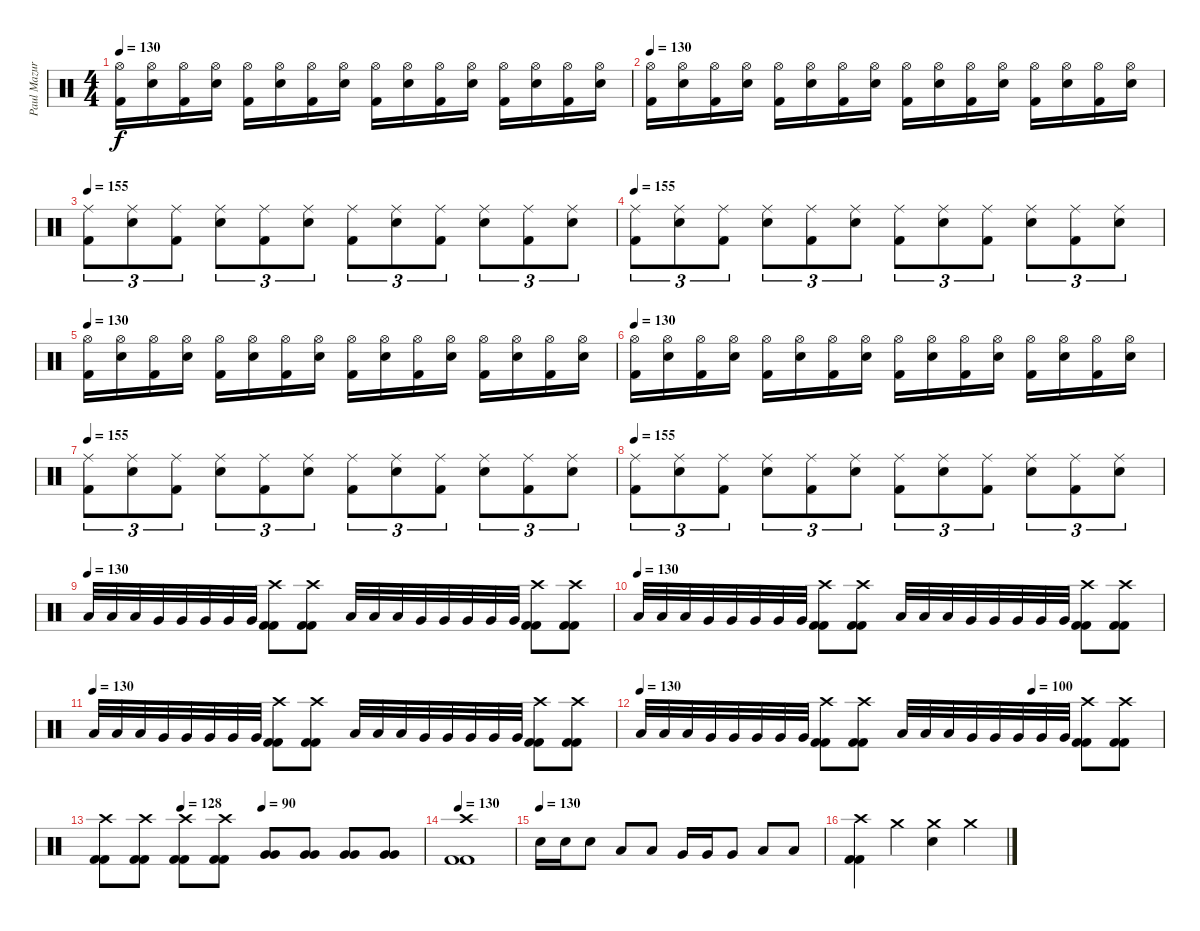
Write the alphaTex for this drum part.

\track ("Paul Mazurkiewicz" "Paul Mazur") {instrument percussion}
\staff {score}
\articulation defaults
\ts (4 4)
\tempo 130
\clef neutral
\ks c
("Hi-Hat (open)" "Kick (hit) 2").16{dy f} ("Hi-Hat (open)" "Snare (hit) 2").16 ("Hi-Hat (open)" "Kick (hit) 2").16 ("Hi-Hat (open)" "Snare (hit) 2").16 ("Hi-Hat (open)" "Kick (hit) 2").16 ("Hi-Hat (open)" "Snare (hit) 2").16 ("Hi-Hat (open)" "Kick (hit) 2").16 ("Hi-Hat (open)" "Snare (hit) 2").16 ("Hi-Hat (open)" "Kick (hit) 2").16 ("Hi-Hat (open)" "Snare (hit) 2").16 ("Hi-Hat (open)" "Kick (hit) 2").16 ("Hi-Hat (open)" "Snare (hit) 2").16 ("Hi-Hat (open)" "Kick (hit) 2").16 ("Hi-Hat (open)" "Snare (hit) 2").16 ("Hi-Hat (open)" "Kick (hit) 2").16 ("Hi-Hat (open)" "Snare (hit) 2").16 |
\tempo 130
("Hi-Hat (open)" "Kick (hit) 2").16 ("Hi-Hat (open)" "Snare (hit) 2").16 ("Hi-Hat (open)" "Kick (hit) 2").16 ("Hi-Hat (open)" "Snare (hit) 2").16 ("Hi-Hat (open)" "Kick (hit) 2").16 ("Hi-Hat (open)" "Snare (hit) 2").16 ("Hi-Hat (open)" "Kick (hit) 2").16 ("Hi-Hat (open)" "Snare (hit) 2").16 ("Hi-Hat (open)" "Kick (hit) 2").16 ("Hi-Hat (open)" "Snare (hit) 2").16 ("Hi-Hat (open)" "Kick (hit) 2").16 ("Hi-Hat (open)" "Snare (hit) 2").16 ("Hi-Hat (open)" "Kick (hit) 2").16 ("Hi-Hat (open)" "Snare (hit) 2").16 ("Hi-Hat (open)" "Kick (hit) 2").16 ("Hi-Hat (open)" "Snare (hit) 2").16 |
\tempo 155
("Ride (middle)" "Kick (hit) 2").8{tu (3 2)} ("Ride (middle)" "Snare (hit) 2").8{tu (3 2)} ("Ride (middle)" "Kick (hit) 2").8{tu (3 2)} ("Ride (middle)" "Snare (hit) 2").8{tu (3 2)} ("Ride (middle)" "Kick (hit) 2").8{tu (3 2)} ("Ride (middle)" "Snare (hit) 2").8{tu (3 2)} ("Ride (middle)" "Kick (hit) 2").8{tu (3 2)} ("Ride (middle)" "Snare (hit) 2").8{tu (3 2)} ("Ride (middle)" "Kick (hit) 2").8{tu (3 2)} ("Ride (middle)" "Snare (hit) 2").8{tu (3 2)} ("Ride (middle)" "Kick (hit) 2").8{tu (3 2)} ("Ride (middle)" "Snare (hit) 2").8{tu (3 2)} |
\tempo 155
("Ride (middle)" "Kick (hit) 2").8{tu (3 2)} ("Ride (middle)" "Snare (hit) 2").8{tu (3 2)} ("Ride (middle)" "Kick (hit) 2").8{tu (3 2)} ("Ride (middle)" "Snare (hit) 2").8{tu (3 2)} ("Ride (middle)" "Kick (hit) 2").8{tu (3 2)} ("Ride (middle)" "Snare (hit) 2").8{tu (3 2)} ("Ride (middle)" "Kick (hit) 2").8{tu (3 2)} ("Ride (middle)" "Snare (hit) 2").8{tu (3 2)} ("Ride (middle)" "Kick (hit) 2").8{tu (3 2)} ("Ride (middle)" "Snare (hit) 2").8{tu (3 2)} ("Ride (middle)" "Kick (hit) 2").8{tu (3 2)} ("Ride (middle)" "Snare (hit) 2").8{tu (3 2)} |
\tempo 130
("Hi-Hat (open)" "Kick (hit) 2").16 ("Hi-Hat (open)" "Snare (hit) 2").16 ("Hi-Hat (open)" "Kick (hit) 2").16 ("Hi-Hat (open)" "Snare (hit) 2").16 ("Hi-Hat (open)" "Kick (hit) 2").16 ("Hi-Hat (open)" "Snare (hit) 2").16 ("Hi-Hat (open)" "Kick (hit) 2").16 ("Hi-Hat (open)" "Snare (hit) 2").16 ("Hi-Hat (open)" "Kick (hit) 2").16 ("Hi-Hat (open)" "Snare (hit) 2").16 ("Hi-Hat (open)" "Kick (hit) 2").16 ("Hi-Hat (open)" "Snare (hit) 2").16 ("Hi-Hat (open)" "Kick (hit) 2").16 ("Hi-Hat (open)" "Snare (hit) 2").16 ("Hi-Hat (open)" "Kick (hit) 2").16 ("Hi-Hat (open)" "Snare (hit) 2").16 |
\tempo 130
("Hi-Hat (open)" "Kick (hit) 2").16 ("Hi-Hat (open)" "Snare (hit) 2").16 ("Hi-Hat (open)" "Kick (hit) 2").16 ("Hi-Hat (open)" "Snare (hit) 2").16 ("Hi-Hat (open)" "Kick (hit) 2").16 ("Hi-Hat (open)" "Snare (hit) 2").16 ("Hi-Hat (open)" "Kick (hit) 2").16 ("Hi-Hat (open)" "Snare (hit) 2").16 ("Hi-Hat (open)" "Kick (hit) 2").16 ("Hi-Hat (open)" "Snare (hit) 2").16 ("Hi-Hat (open)" "Kick (hit) 2").16 ("Hi-Hat (open)" "Snare (hit) 2").16 ("Hi-Hat (open)" "Kick (hit) 2").16 ("Hi-Hat (open)" "Snare (hit) 2").16 ("Hi-Hat (open)" "Kick (hit) 2").16 ("Hi-Hat (open)" "Snare (hit) 2").16 |
\tempo 155
("Ride (middle)" "Kick (hit) 2").8{tu (3 2)} ("Ride (middle)" "Snare (hit) 2").8{tu (3 2)} ("Ride (middle)" "Kick (hit) 2").8{tu (3 2)} ("Ride (middle)" "Snare (hit) 2").8{tu (3 2)} ("Ride (middle)" "Kick (hit) 2").8{tu (3 2)} ("Ride (middle)" "Snare (hit) 2").8{tu (3 2)} ("Ride (middle)" "Kick (hit) 2").8{tu (3 2)} ("Ride (middle)" "Snare (hit) 2").8{tu (3 2)} ("Ride (middle)" "Kick (hit) 2").8{tu (3 2)} ("Ride (middle)" "Snare (hit) 2").8{tu (3 2)} ("Ride (middle)" "Kick (hit) 2").8{tu (3 2)} ("Ride (middle)" "Snare (hit) 2").8{tu (3 2)} |
\tempo 155
("Ride (middle)" "Kick (hit) 2").8{tu (3 2)} ("Ride (middle)" "Snare (hit) 2").8{tu (3 2)} ("Ride (middle)" "Kick (hit) 2").8{tu (3 2)} ("Ride (middle)" "Snare (hit) 2").8{tu (3 2)} ("Ride (middle)" "Kick (hit) 2").8{tu (3 2)} ("Ride (middle)" "Snare (hit) 2").8{tu (3 2)} ("Ride (middle)" "Kick (hit) 2").8{tu (3 2)} ("Ride (middle)" "Snare (hit) 2").8{tu (3 2)} ("Ride (middle)" "Kick (hit) 2").8{tu (3 2)} ("Ride (middle)" "Snare (hit) 2").8{tu (3 2)} ("Ride (middle)" "Kick (hit) 2").8{tu (3 2)} ("Ride (middle)" "Snare (hit) 2").8{tu (3 2)} |
\tempo (130)
"Low Tom (hit)".32 "Low Tom (hit)".32 "Low Tom (hit)".32 "Very Low Tom (hit)".32 "Very Low Tom (hit)".32 "Very Low Tom (hit)".32 "Very Low Tom (hit)".32 "Very Low Tom (hit)".32 ("Crash high (hit)" "Kick (hit) 2" "Kick (hit) 2").8 ("Crash high (hit)" "Kick (hit) 2" "Kick (hit) 2").8 "Low Tom (hit)".32 "Low Tom (hit)".32 "Low Tom (hit)".32 "Very Low Tom (hit)".32 "Very Low Tom (hit)".32 "Very Low Tom (hit)".32 "Very Low Tom (hit)".32 "Very Low Tom (hit)".32 ("Crash high (hit)" "Kick (hit) 2" "Kick (hit) 2").8 ("Crash high (hit)" "Kick (hit) 2" "Kick (hit) 2").8 |
\tempo (130)
"Low Tom (hit)".32 "Low Tom (hit)".32 "Low Tom (hit)".32 "Very Low Tom (hit)".32 "Very Low Tom (hit)".32 "Very Low Tom (hit)".32 "Very Low Tom (hit)".32 "Very Low Tom (hit)".32 ("Crash high (hit)" "Kick (hit) 2" "Kick (hit) 2").8 ("Crash high (hit)" "Kick (hit) 2" "Kick (hit) 2").8 "Low Tom (hit)".32 "Low Tom (hit)".32 "Low Tom (hit)".32 "Very Low Tom (hit)".32 "Very Low Tom (hit)".32 "Very Low Tom (hit)".32 "Very Low Tom (hit)".32 "Very Low Tom (hit)".32 ("Crash high (hit)" "Kick (hit) 2" "Kick (hit) 2").8 ("Crash high (hit)" "Kick (hit) 2" "Kick (hit) 2").8 |
\tempo (130)
"Low Tom (hit)".32 "Low Tom (hit)".32 "Low Tom (hit)".32 "Very Low Tom (hit)".32 "Very Low Tom (hit)".32 "Very Low Tom (hit)".32 "Very Low Tom (hit)".32 "Very Low Tom (hit)".32 ("Crash high (hit)" "Kick (hit) 2" "Kick (hit) 2").8 ("Crash high (hit)" "Kick (hit) 2" "Kick (hit) 2").8 "Low Tom (hit)".32 "Low Tom (hit)".32 "Low Tom (hit)".32 "Very Low Tom (hit)".32 "Very Low Tom (hit)".32 "Very Low Tom (hit)".32 "Very Low Tom (hit)".32 "Very Low Tom (hit)".32 ("Crash high (hit)" "Kick (hit) 2" "Kick (hit) 2").8 ("Crash high (hit)" "Kick (hit) 2" "Kick (hit) 2").8 |
\tempo (100 0.75)
\tempo (130)
"Low Tom (hit)".32 "Low Tom (hit)".32 "Low Tom (hit)".32 "Very Low Tom (hit)".32 "Very Low Tom (hit)".32 "Very Low Tom (hit)".32 "Very Low Tom (hit)".32 "Very Low Tom (hit)".32 ("Crash high (hit)" "Kick (hit) 2" "Kick (hit) 2").8 ("Crash high (hit)" "Kick (hit) 2" "Kick (hit) 2").8 "Low Tom (hit)".32 "Low Tom (hit)".32 "Low Tom (hit)".32 "Very Low Tom (hit)".32 "Very Low Tom (hit)".32 "Very Low Tom (hit)".32 "Very Low Tom (hit)".32 "Very Low Tom (hit)".32 ("Crash high (hit)" "Kick (hit) 2" "Kick (hit) 2").8 ("Crash high (hit)" "Kick (hit) 2" "Kick (hit) 2").8 |
\tempo (128 0.25)
\tempo (90 0.5)
("Crash high (hit)" "Kick (hit) 2" "Kick (hit) 2").8 ("Crash high (hit)" "Kick (hit) 2" "Kick (hit) 2").8 ("Crash high (hit)" "Kick (hit) 2" "Kick (hit) 2").8 ("Crash high (hit)" "Kick (hit) 2" "Kick (hit) 2").8 ("Very Low Tom (hit)" "Very Low Tom (hit)").8 ("Very Low Tom (hit)" "Very Low Tom (hit)").8 ("Very Low Tom (hit)" "Very Low Tom (hit)").8 ("Very Low Tom (hit)" "Very Low Tom (hit)").8 |
\tempo 128
\tempo 130
("Crash high (hit)" "Kick (hit) 2" "Kick (hit) 2").1 |
\tempo (130)
"Electric Snare (hit)".16 "Electric Snare (hit)".16 "Electric Snare (hit)".8 "Low Tom (hit)".8 "Low Tom (hit)".8 "Very Low Tom (hit)".16 "Very Low Tom (hit)".16 "Very Low Tom (hit)".8 "Low Floor Tom (hit)".8 "Low Floor Tom (hit)".8 |
("Crash high (hit)" "Kick (hit) 2" "Kick (hit) 2").4 "Crash medium (hit)".4 ("Crash medium (hit)" "Snare (hit) 2").4 "Crash medium (hit)".4
